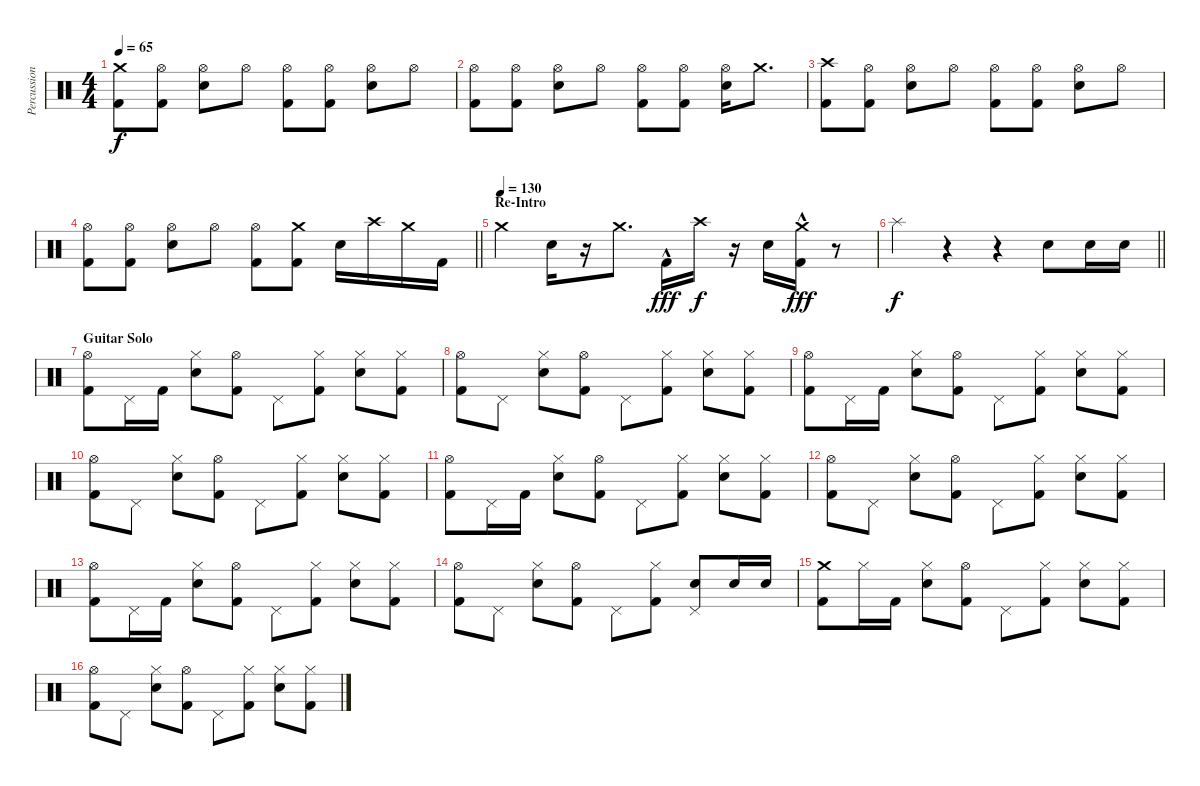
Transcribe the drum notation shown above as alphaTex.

\track ("Percussion" "Percussion") {instrument percussion}
\staff {score}
\articulation defaults
\ts (4 4)
\tempo 65
\clef neutral
\ks c
("Crash medium (hit)" "Kick (hit) 2").8{dy f} ("Hi-Hat (open)" "Kick (hit) 2").8 ("Hi-Hat (open)" "Electric Snare (hit)").8 "Hi-Hat (open)".8 ("Hi-Hat (open)" "Kick (hit) 2").8 ("Hi-Hat (open)" "Kick (hit) 2").8 ("Hi-Hat (open)" "Electric Snare (hit)").8 "Hi-Hat (open)".8 |
("Hi-Hat (open)" "Kick (hit) 2").8 ("Hi-Hat (open)" "Kick (hit) 2").8 ("Hi-Hat (open)" "Electric Snare (hit)").8 "Hi-Hat (open)".8 ("Hi-Hat (open)" "Kick (hit) 2").8 ("Hi-Hat (open)" "Kick (hit) 2").8 ("Hi-Hat (open)" "Electric Snare (hit)").16 "Crash medium (hit)".8{d} |
("Crash high (hit)" "Kick (hit) 2").8 ("Hi-Hat (open)" "Kick (hit) 2").8 ("Hi-Hat (open)" "Electric Snare (hit)").8 "Hi-Hat (open)".8 ("Hi-Hat (open)" "Kick (hit) 2").8 ("Hi-Hat (open)" "Kick (hit) 2").8 ("Hi-Hat (open)" "Electric Snare (hit)").8 "Hi-Hat (open)".8 |
\barLineRight lightlight
("Hi-Hat (open)" "Kick (hit) 2").8 ("Hi-Hat (open)" "Kick (hit) 2").8 ("Hi-Hat (open)" "Electric Snare (hit)").8 "Hi-Hat (open)".8 ("Hi-Hat (open)" "Kick (hit) 2").8 ("Crash medium (hit)" "Kick (hit) 2").8 "Electric Snare (hit)".16 "Crash high (hit)".16 "Crash medium (hit)".16 "Kick (hit) 2".16 |
\section ("" "Re-Intro")
\tempo (130)
"Crash medium (hit)".4 "Electric Snare (hit)".16 r.16 "Crash medium (hit)".8{d} "Kick (hit) 2"{hac}.16{dy fff} "Crash high (hit)".16{dy f} r.16 "Electric Snare (hit)".16 ("Crash medium (hit)" "Kick (hit) 2"{hac}).16{dy fff} r.8 |
\barLineRight lightlight "Splash (hit)".4{dy f}
r.4 r.4 "Electric Snare (hit)".8 "Electric Snare (hit)".16 "Electric Snare (hit)".16 |
\section ("" "Guitar Solo")
("Hi-Hat (open)" "Kick (hit) 2").8 "Pedal Hi-Hat (hit)".16 "Kick (hit) 2".16 ("Hi-Hat (closed)" "Electric Snare (hit)").8 ("Hi-Hat (open)" "Kick (hit) 2").8 "Pedal Hi-Hat (hit)".8 ("Hi-Hat (closed)" "Kick (hit) 2").8 ("Hi-Hat (closed)" "Electric Snare (hit)").8 ("Hi-Hat (closed)" "Kick (hit) 2").8 |
("Hi-Hat (open)" "Kick (hit) 2").8 "Pedal Hi-Hat (hit)".8 ("Hi-Hat (closed)" "Electric Snare (hit)").8 ("Hi-Hat (open)" "Kick (hit) 2").8 "Pedal Hi-Hat (hit)".8 ("Hi-Hat (closed)" "Kick (hit) 2").8 ("Hi-Hat (closed)" "Electric Snare (hit)").8 ("Hi-Hat (closed)" "Kick (hit) 2").8 |
("Hi-Hat (open)" "Kick (hit) 2").8 "Pedal Hi-Hat (hit)".16 "Kick (hit) 2".16 ("Hi-Hat (closed)" "Electric Snare (hit)").8 ("Hi-Hat (open)" "Kick (hit) 2").8 "Pedal Hi-Hat (hit)".8 ("Hi-Hat (closed)" "Kick (hit) 2").8 ("Hi-Hat (closed)" "Electric Snare (hit)").8 ("Hi-Hat (closed)" "Kick (hit) 2").8 |
("Hi-Hat (open)" "Kick (hit) 2").8 "Pedal Hi-Hat (hit)".8 ("Hi-Hat (closed)" "Electric Snare (hit)").8 ("Hi-Hat (open)" "Kick (hit) 2").8 "Pedal Hi-Hat (hit)".8 ("Hi-Hat (closed)" "Kick (hit) 2").8 ("Hi-Hat (closed)" "Electric Snare (hit)").8 ("Hi-Hat (closed)" "Kick (hit) 2").8 |
("Hi-Hat (open)" "Kick (hit) 2").8 "Pedal Hi-Hat (hit)".16 "Kick (hit) 2".16 ("Hi-Hat (closed)" "Electric Snare (hit)").8 ("Hi-Hat (open)" "Kick (hit) 2").8 "Pedal Hi-Hat (hit)".8 ("Hi-Hat (closed)" "Kick (hit) 2").8 ("Hi-Hat (closed)" "Electric Snare (hit)").8 ("Hi-Hat (closed)" "Kick (hit) 2").8 |
("Hi-Hat (open)" "Kick (hit) 2").8 "Pedal Hi-Hat (hit)".8 ("Hi-Hat (closed)" "Electric Snare (hit)").8 ("Hi-Hat (open)" "Kick (hit) 2").8 "Pedal Hi-Hat (hit)".8 ("Hi-Hat (closed)" "Kick (hit) 2").8 ("Hi-Hat (closed)" "Electric Snare (hit)").8 ("Hi-Hat (closed)" "Kick (hit) 2").8 |
("Hi-Hat (open)" "Kick (hit) 2").8 "Pedal Hi-Hat (hit)".16 "Kick (hit) 2".16 ("Hi-Hat (closed)" "Electric Snare (hit)").8 ("Hi-Hat (open)" "Kick (hit) 2").8 "Pedal Hi-Hat (hit)".8 ("Hi-Hat (closed)" "Kick (hit) 2").8 ("Hi-Hat (closed)" "Electric Snare (hit)").8 ("Hi-Hat (closed)" "Kick (hit) 2").8 |
("Hi-Hat (open)" "Kick (hit) 2").8 "Pedal Hi-Hat (hit)".8 ("Hi-Hat (closed)" "Electric Snare (hit)").8 ("Hi-Hat (open)" "Kick (hit) 2").8 "Pedal Hi-Hat (hit)".8 ("Hi-Hat (closed)" "Kick (hit) 2").8 ("Pedal Hi-Hat (hit)" "Electric Snare (hit)").8 "Electric Snare (hit)".16 "Electric Snare (hit)".16 |
("Crash medium (hit)" "Kick (hit) 2").8 "Hi-Hat (closed)".16 "Kick (hit) 2".16 ("Hi-Hat (closed)" "Electric Snare (hit)").8 ("Hi-Hat (open)" "Kick (hit) 2").8 "Pedal Hi-Hat (hit)".8 ("Hi-Hat (closed)" "Kick (hit) 2").8 ("Hi-Hat (closed)" "Electric Snare (hit)").8 ("Hi-Hat (closed)" "Kick (hit) 2").8 |
("Hi-Hat (open)" "Kick (hit) 2").8 "Pedal Hi-Hat (hit)".8 ("Hi-Hat (closed)" "Electric Snare (hit)").8 ("Hi-Hat (open)" "Kick (hit) 2").8 "Pedal Hi-Hat (hit)".8 ("Hi-Hat (closed)" "Kick (hit) 2").8 ("Hi-Hat (closed)" "Electric Snare (hit)").8 ("Hi-Hat (closed)" "Kick (hit) 2").8
